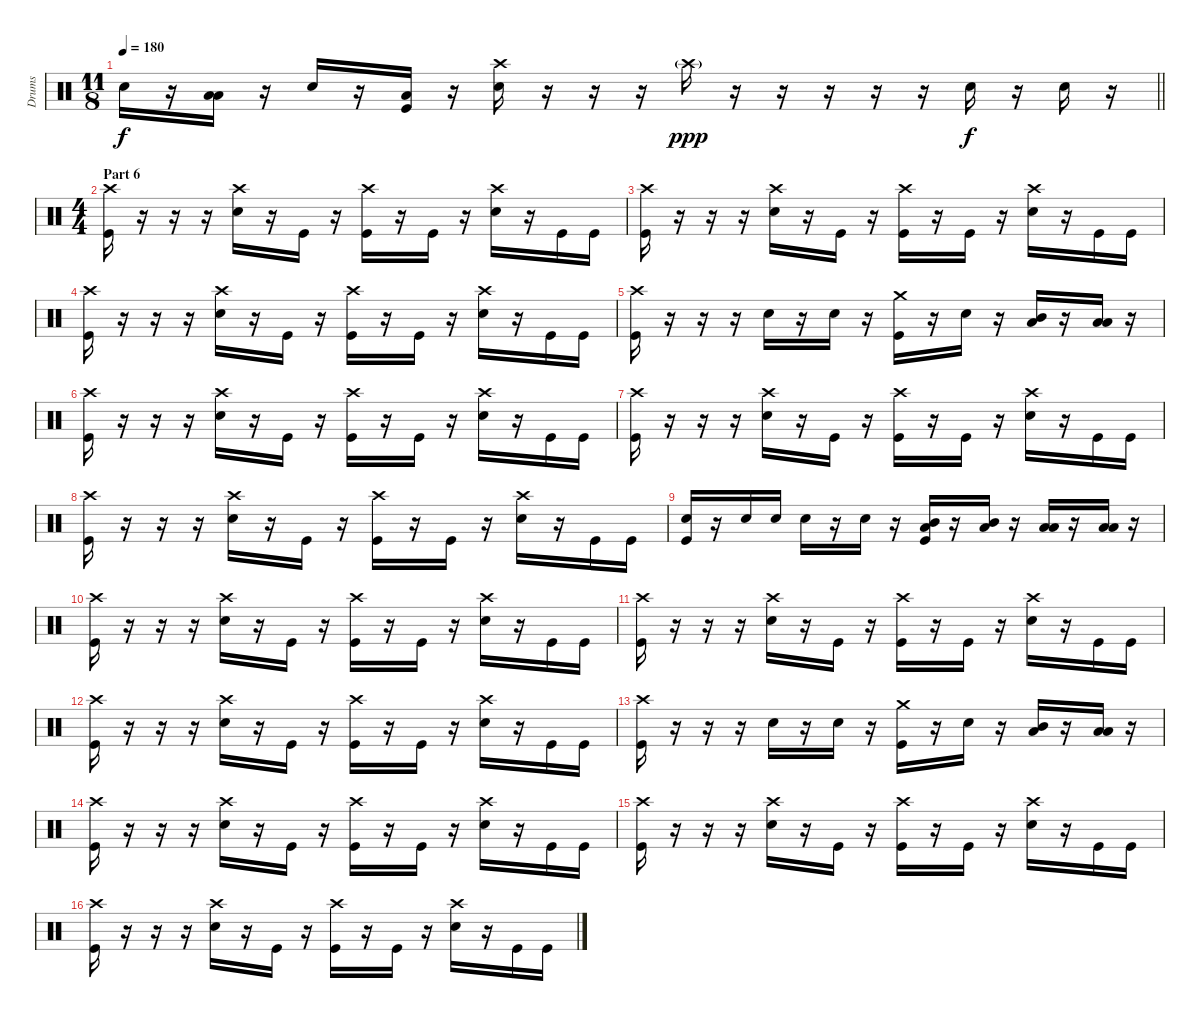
\track ("Drums" "Drums") {instrument percussion}
\staff {score}
\articulation defaults
\ts (11 8)
\tempo 180
\clef neutral
\barLineRight lightlight
\ks c "Electric Snare (hit)".16{dy f}
r.16 ("Low Tom (hit)" "Low Floor Tom (hit)").16 r.16 "Electric Snare (hit)".16 r.16 ("Low Floor Tom (hit)" "Kick (hit)").16 r.16 ("Crash high (hit)" "Electric Snare (hit)").16 r.16 r.16 r.16 "Crash high (hit)"{g}.16{dy ppp} r.16 r.16 r.16 r.16 r.16 "Electric Snare (hit)".16{dy f} r.16 "Electric Snare (hit)".16 r.16 |
\ts (4 4)
\section ("" "Part 6")
("Crash high (hit)" "Kick (hit)").16 r.16 r.16 r.16 ("Crash high (hit)" "Electric Snare (hit)").16 r.16 "Kick (hit)".16 r.16 ("Crash high (hit)" "Kick (hit)").16 r.16 "Kick (hit)".16 r.16 ("Crash high (hit)" "Electric Snare (hit)").16 r.16 "Kick (hit)".16 "Kick (hit)".16 |
("Crash high (hit)" "Kick (hit)").16 r.16 r.16 r.16 ("Crash high (hit)" "Electric Snare (hit)").16 r.16 "Kick (hit)".16 r.16 ("Crash high (hit)" "Kick (hit)").16 r.16 "Kick (hit)".16 r.16 ("Crash high (hit)" "Electric Snare (hit)").16 r.16 "Kick (hit)".16 "Kick (hit)".16 |
("Crash high (hit)" "Kick (hit)").16 r.16 r.16 r.16 ("Crash high (hit)" "Electric Snare (hit)").16 r.16 "Kick (hit)".16 r.16 ("Crash high (hit)" "Kick (hit)").16 r.16 "Kick (hit)".16 r.16 ("Crash high (hit)" "Electric Snare (hit)").16 r.16 "Kick (hit)".16 "Kick (hit)".16 |
("Crash high (hit)" "Kick (hit)").16 r.16 r.16 r.16 "Electric Snare (hit)".16 r.16 "Electric Snare (hit)".16 r.16 ("Crash medium (hit)" "Kick (hit)").16 r.16 "Electric Snare (hit)".16 r.16 ("Mid Tom (hit)" "Low Tom (hit)").16 r.16 ("Low Tom (hit)" "Low Floor Tom (hit)").16 r.16 |
("Crash high (hit)" "Kick (hit)").16 r.16 r.16 r.16 ("Crash high (hit)" "Electric Snare (hit)").16 r.16 "Kick (hit)".16 r.16 ("Crash high (hit)" "Kick (hit)").16 r.16 "Kick (hit)".16 r.16 ("Crash high (hit)" "Electric Snare (hit)").16 r.16 "Kick (hit)".16 "Kick (hit)".16 |
("Crash high (hit)" "Kick (hit)").16 r.16 r.16 r.16 ("Crash high (hit)" "Electric Snare (hit)").16 r.16 "Kick (hit)".16 r.16 ("Crash high (hit)" "Kick (hit)").16 r.16 "Kick (hit)".16 r.16 ("Crash high (hit)" "Electric Snare (hit)").16 r.16 "Kick (hit)".16 "Kick (hit)".16 |
("Crash high (hit)" "Kick (hit)").16 r.16 r.16 r.16 ("Crash high (hit)" "Electric Snare (hit)").16 r.16 "Kick (hit)".16 r.16 ("Crash high (hit)" "Kick (hit)").16 r.16 "Kick (hit)".16 r.16 ("Crash high (hit)" "Electric Snare (hit)").16 r.16 "Kick (hit)".16 "Kick (hit)".16 |
("Electric Snare (hit)" "Kick (hit)").16 r.16 "Electric Snare (hit)".16 "Electric Snare (hit)".16 "Electric Snare (hit)".16 r.16 "Electric Snare (hit)".16 r.16 ("Mid Tom (hit)" "Low Tom (hit)" "Kick (hit)").16 r.16 ("Mid Tom (hit)" "Low Tom (hit)").16 r.16 ("Low Tom (hit)" "Low Floor Tom (hit)").16 r.16 ("Low Tom (hit)" "Low Floor Tom (hit)").16 r.16 |
("Crash high (hit)" "Kick (hit)").16 r.16 r.16 r.16 ("Crash high (hit)" "Electric Snare (hit)").16 r.16 "Kick (hit)".16 r.16 ("Crash high (hit)" "Kick (hit)").16 r.16 "Kick (hit)".16 r.16 ("Crash high (hit)" "Electric Snare (hit)").16 r.16 "Kick (hit)".16 "Kick (hit)".16 |
("Crash high (hit)" "Kick (hit)").16 r.16 r.16 r.16 ("Crash high (hit)" "Electric Snare (hit)").16 r.16 "Kick (hit)".16 r.16 ("Crash high (hit)" "Kick (hit)").16 r.16 "Kick (hit)".16 r.16 ("Crash high (hit)" "Electric Snare (hit)").16 r.16 "Kick (hit)".16 "Kick (hit)".16 |
("Crash high (hit)" "Kick (hit)").16 r.16 r.16 r.16 ("Crash high (hit)" "Electric Snare (hit)").16 r.16 "Kick (hit)".16 r.16 ("Crash high (hit)" "Kick (hit)").16 r.16 "Kick (hit)".16 r.16 ("Crash high (hit)" "Electric Snare (hit)").16 r.16 "Kick (hit)".16 "Kick (hit)".16 |
("Crash high (hit)" "Kick (hit)").16 r.16 r.16 r.16 "Electric Snare (hit)".16 r.16 "Electric Snare (hit)".16 r.16 ("Crash medium (hit)" "Kick (hit)").16 r.16 "Electric Snare (hit)".16 r.16 ("Mid Tom (hit)" "Low Tom (hit)").16 r.16 ("Low Tom (hit)" "Low Floor Tom (hit)").16 r.16 |
("Crash high (hit)" "Kick (hit)").16 r.16 r.16 r.16 ("Crash high (hit)" "Electric Snare (hit)").16 r.16 "Kick (hit)".16 r.16 ("Crash high (hit)" "Kick (hit)").16 r.16 "Kick (hit)".16 r.16 ("Crash high (hit)" "Electric Snare (hit)").16 r.16 "Kick (hit)".16 "Kick (hit)".16 |
("Crash high (hit)" "Kick (hit)").16 r.16 r.16 r.16 ("Crash high (hit)" "Electric Snare (hit)").16 r.16 "Kick (hit)".16 r.16 ("Crash high (hit)" "Kick (hit)").16 r.16 "Kick (hit)".16 r.16 ("Crash high (hit)" "Electric Snare (hit)").16 r.16 "Kick (hit)".16 "Kick (hit)".16 |
("Crash high (hit)" "Kick (hit)").16 r.16 r.16 r.16 ("Crash high (hit)" "Electric Snare (hit)").16 r.16 "Kick (hit)".16 r.16 ("Crash high (hit)" "Kick (hit)").16 r.16 "Kick (hit)".16 r.16 ("Crash high (hit)" "Electric Snare (hit)").16 r.16 "Kick (hit)".16 "Kick (hit)".16
